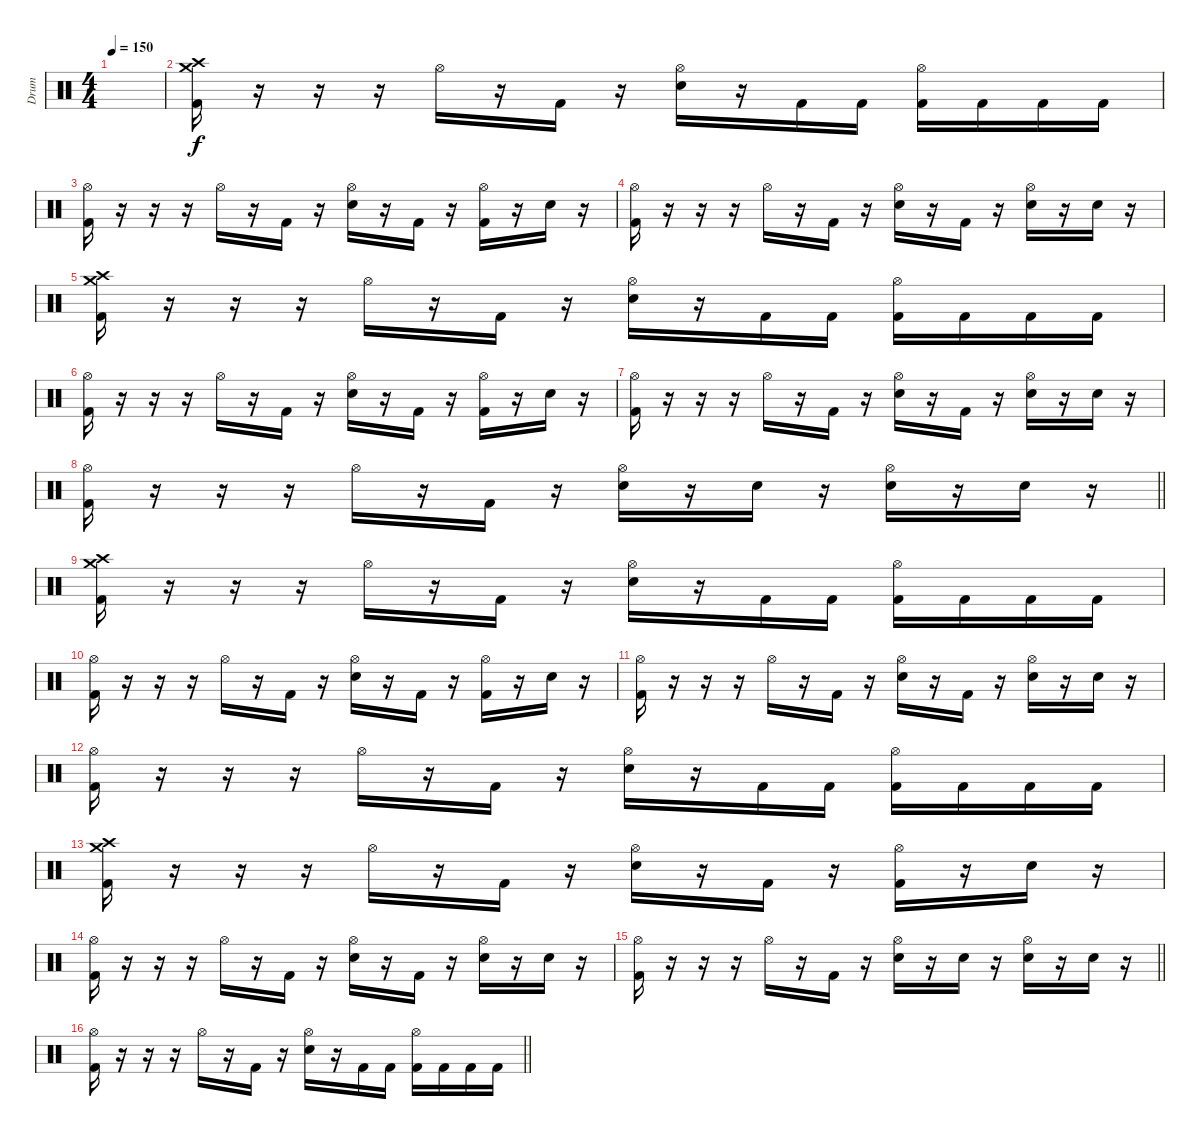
\track ("Drum" "Drum") {instrument percussion}
\staff {score}
\articulation defaults
\ts (4 4)
\tempo 150
\clef neutral
\ks c
|
("Kick (hit) 2" "Crash medium (hit)" "Crash high (hit)").16 r.16 r.16 r.16 "Hi-Hat (open)".16 r.16 "Kick (hit) 2".16 r.16 ("Snare (hit) 2" "Hi-Hat (open)").16 r.16 "Kick (hit) 2".16 "Kick (hit) 2".16 ("Kick (hit) 2" "Hi-Hat (open)").16 "Kick (hit) 2".16 "Kick (hit) 2".16 "Kick (hit) 2".16 |
("Kick (hit) 2" "Hi-Hat (open)").16 r.16 r.16 r.16 "Hi-Hat (open)".16 r.16 "Kick (hit) 2".16 r.16 ("Snare (hit) 2" "Hi-Hat (open)").16 r.16 "Kick (hit) 2".16 r.16 ("Kick (hit) 2" "Hi-Hat (open)").16 r.16 "Snare (hit) 2".16 r.16 |
("Kick (hit) 2" "Hi-Hat (open)").16 r.16 r.16 r.16 "Hi-Hat (open)".16 r.16 "Kick (hit) 2".16 r.16 ("Snare (hit) 2" "Hi-Hat (open)").16 r.16 "Kick (hit) 2".16 r.16 ("Snare (hit) 2" "Hi-Hat (open)").16 r.16 "Snare (hit) 2".16 r.16 |
("Kick (hit) 2" "Crash medium (hit)" "Crash high (hit)").16 r.16 r.16 r.16 "Hi-Hat (open)".16 r.16 "Kick (hit) 2".16 r.16 ("Snare (hit) 2" "Hi-Hat (open)").16 r.16 "Kick (hit) 2".16 "Kick (hit) 2".16 ("Kick (hit) 2" "Hi-Hat (open)").16 "Kick (hit) 2".16 "Kick (hit) 2".16 "Kick (hit) 2".16 |
("Kick (hit) 2" "Hi-Hat (open)").16 r.16 r.16 r.16 "Hi-Hat (open)".16 r.16 "Kick (hit) 2".16 r.16 ("Snare (hit) 2" "Hi-Hat (open)").16 r.16 "Kick (hit) 2".16 r.16 ("Kick (hit) 2" "Hi-Hat (open)").16 r.16 "Snare (hit) 2".16 r.16 |
("Kick (hit) 2" "Hi-Hat (open)").16 r.16 r.16 r.16 "Hi-Hat (open)".16 r.16 "Kick (hit) 2".16 r.16 ("Snare (hit) 2" "Hi-Hat (open)").16 r.16 "Kick (hit) 2".16 r.16 ("Snare (hit) 2" "Hi-Hat (open)").16 r.16 "Snare (hit) 2".16 r.16 |
\barLineRight lightlight
("Kick (hit) 2" "Hi-Hat (open)").16 r.16 r.16 r.16 "Hi-Hat (open)".16 r.16 "Kick (hit) 2".16 r.16 ("Snare (hit) 2" "Hi-Hat (open)").16 r.16 "Snare (hit) 2".16 r.16 ("Snare (hit) 2" "Hi-Hat (open)").16 r.16 "Snare (hit) 2".16 r.16 |
\section ("" "")
("Kick (hit) 2" "Crash medium (hit)" "Crash high (hit)").16 r.16 r.16 r.16 "Hi-Hat (open)".16 r.16 "Kick (hit) 2".16 r.16 ("Snare (hit) 2" "Hi-Hat (open)").16 r.16 "Kick (hit) 2".16 "Kick (hit) 2".16 ("Kick (hit) 2" "Hi-Hat (open)").16 "Kick (hit) 2".16 "Kick (hit) 2".16 "Kick (hit) 2".16 |
("Kick (hit) 2" "Hi-Hat (open)").16 r.16 r.16 r.16 "Hi-Hat (open)".16 r.16 "Kick (hit) 2".16 r.16 ("Snare (hit) 2" "Hi-Hat (open)").16 r.16 "Kick (hit) 2".16 r.16 ("Kick (hit) 2" "Hi-Hat (open)").16 r.16 "Snare (hit) 2".16 r.16 |
("Kick (hit) 2" "Hi-Hat (open)").16 r.16 r.16 r.16 "Hi-Hat (open)".16 r.16 "Kick (hit) 2".16 r.16 ("Snare (hit) 2" "Hi-Hat (open)").16 r.16 "Kick (hit) 2".16 r.16 ("Snare (hit) 2" "Hi-Hat (open)").16 r.16 "Snare (hit) 2".16 r.16 |
("Kick (hit) 2" "Hi-Hat (open)").16 r.16 r.16 r.16 "Hi-Hat (open)".16 r.16 "Kick (hit) 2".16 r.16 ("Snare (hit) 2" "Hi-Hat (open)").16 r.16 "Kick (hit) 2".16 "Kick (hit) 2".16 ("Kick (hit) 2" "Hi-Hat (open)").16 "Kick (hit) 2".16 "Kick (hit) 2".16 "Kick (hit) 2".16 |
("Kick (hit) 2" "Crash high (hit)" "Crash medium (hit)").16 r.16 r.16 r.16 "Hi-Hat (open)".16 r.16 "Kick (hit) 2".16 r.16 ("Snare (hit) 2" "Hi-Hat (open)").16 r.16 "Kick (hit) 2".16 r.16 ("Kick (hit) 2" "Hi-Hat (open)").16 r.16 "Snare (hit) 2".16 r.16 |
("Kick (hit) 2" "Hi-Hat (open)").16 r.16 r.16 r.16 "Hi-Hat (open)".16 r.16 "Kick (hit) 2".16 r.16 ("Snare (hit) 2" "Hi-Hat (open)").16 r.16 "Kick (hit) 2".16 r.16 ("Snare (hit) 2" "Hi-Hat (open)").16 r.16 "Snare (hit) 2".16 r.16 |
\barLineRight lightlight
("Kick (hit) 2" "Hi-Hat (open)").16 r.16 r.16 r.16 "Hi-Hat (open)".16 r.16 "Kick (hit) 2".16 r.16 ("Snare (hit) 2" "Hi-Hat (open)").16 r.16 "Snare (hit) 2".16 r.16 ("Snare (hit) 2" "Hi-Hat (open)").16 r.16 "Snare (hit) 2".16 r.16 |
\barLineRight lightlight
("Kick (hit) 2" "Hi-Hat (open)").16 r.16 r.16 r.16 "Hi-Hat (open)".16 r.16 "Kick (hit) 2".16 r.16 ("Snare (hit) 2" "Hi-Hat (open)").16 r.16 "Kick (hit) 2".16 "Kick (hit) 2".16 ("Kick (hit) 2" "Hi-Hat (open)").16 "Kick (hit) 2".16 "Kick (hit) 2".16 "Kick (hit) 2".16
